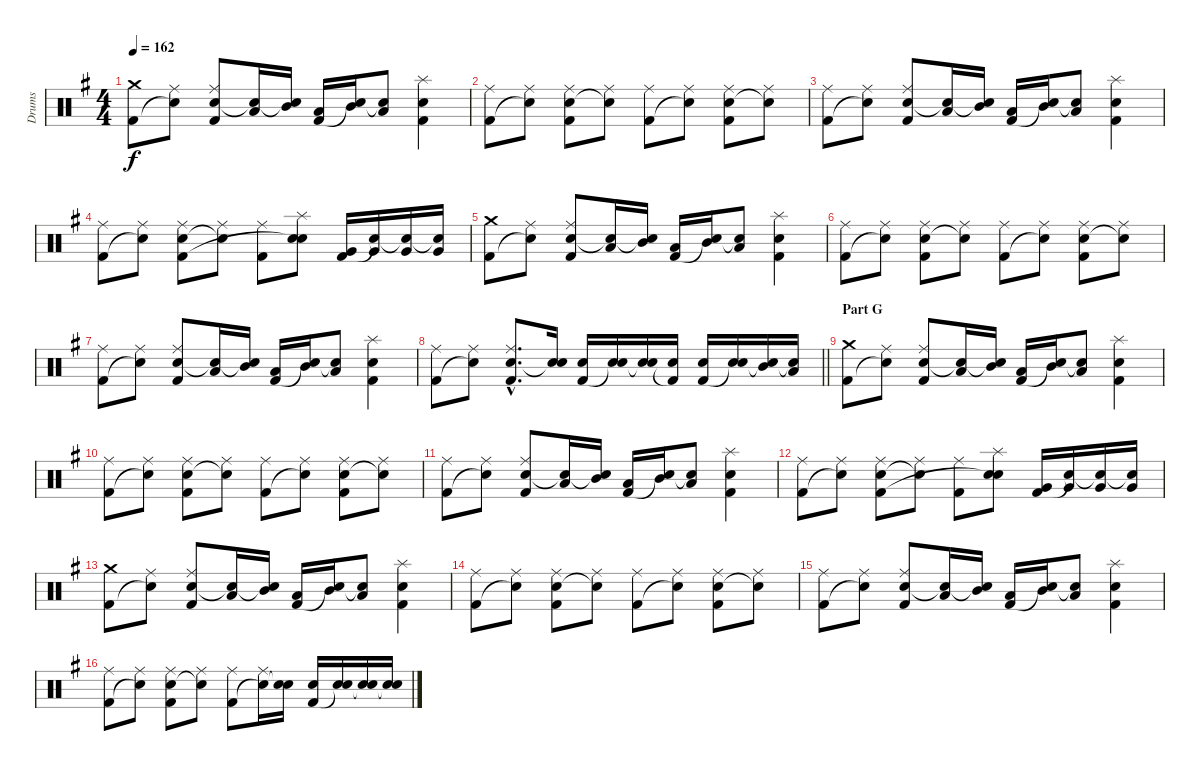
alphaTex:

\track ("Drums" "Drums") {instrument percussion}
\staff {score}
\articulation defaults
\ts (4 4)
\tempo 162
\clef neutral
\ks g
("Crash medium (hit)" "Kick (hit) 2").8{dy f} ("Ride (middle)" "Snare (hit)"{t}).8 ("Ride (middle)" "Electric Snare (hit)" "Kick (hit) 2").8 ("Low Tom (hit)" "Snare (hit)"{t}).16 ("Mid Tom (hit)" "Snare (hit)"{t}).16 ("Low Tom (hit)" "Kick (hit) 2").16 ("Mid Tom (hit)" "Snare (hit)"{t}).16 ("Low Tom (hit)" "Snare (hit)"{t}).8 ("Splash (hit)" "Electric Snare (hit)" "Kick (hit) 2").4 |
("Ride (middle)" "Kick (hit) 2").8 ("Ride (middle)" "Snare (hit)"{t}).8 ("Ride (middle)" "Electric Snare (hit)" "Kick (hit) 2").8 ("Ride (middle)" "Snare (hit)"{t}).8 ("Ride (middle)" "Kick (hit) 2").8 ("Ride (middle)" "Snare (hit)"{t}).8 ("Ride (middle)" "Electric Snare (hit)" "Kick (hit) 2").8 ("Ride (middle)" "Snare (hit)"{t}).8 |
("Ride (middle)" "Kick (hit) 2").8 ("Ride (middle)" "Snare (hit)"{t}).8 ("Ride (middle)" "Electric Snare (hit)" "Kick (hit) 2").8 ("Low Tom (hit)" "Snare (hit)"{t}).16 ("Mid Tom (hit)" "Snare (hit)"{t}).16 ("Low Tom (hit)" "Kick (hit) 2").16 ("Mid Tom (hit)" "Snare (hit)"{t}).16 ("Low Tom (hit)" "Snare (hit)"{t}).8 ("Splash (hit)" "Electric Snare (hit)" "Kick (hit) 2").4 |
("Ride (middle)" "Kick (hit) 2").8 ("Ride (middle)" "Snare (hit)"{t}).8 ("Ride (middle)" "Electric Snare (hit)" "Kick (hit) 2").8 ("Ride (middle)" "Snare (hit)"{t}).8 ("Ride (middle)" "Kick (hit) 2").8 ("Splash (hit)" "Electric Snare (hit)" "Snare (hit)"{t}).8 ("Very Low Tom (hit)" "Kick (hit) 2").16 ("Very Low Tom (hit)" "Snare (hit)"{t}).16 ("Very Low Tom (hit)" "Snare (hit)"{t}).16 ("Very Low Tom (hit)" "Snare (hit)"{t}).16 |
("Crash medium (hit)" "Kick (hit) 2").8 ("Ride (middle)" "Snare (hit)"{t}).8 ("Ride (middle)" "Electric Snare (hit)" "Kick (hit) 2").8 ("Low Tom (hit)" "Snare (hit)"{t}).16 ("Mid Tom (hit)" "Snare (hit)"{t}).16 ("Low Tom (hit)" "Kick (hit) 2").16 ("Mid Tom (hit)" "Snare (hit)"{t}).16 ("Low Tom (hit)" "Snare (hit)"{t}).8 ("Splash (hit)" "Electric Snare (hit)" "Kick (hit) 2").4 |
("Ride (middle)" "Kick (hit) 2").8 ("Ride (middle)" "Snare (hit)"{t}).8 ("Ride (middle)" "Electric Snare (hit)" "Kick (hit) 2").8 ("Ride (middle)" "Snare (hit)"{t}).8 ("Ride (middle)" "Kick (hit) 2").8 ("Ride (middle)" "Snare (hit)"{t}).8 ("Ride (middle)" "Electric Snare (hit)" "Kick (hit) 2").8 ("Ride (middle)" "Snare (hit)"{t}).8 |
("Ride (middle)" "Kick (hit) 2").8 ("Ride (middle)" "Snare (hit)"{t}).8 ("Ride (middle)" "Electric Snare (hit)" "Kick (hit) 2").8 ("Low Tom (hit)" "Snare (hit)"{t}).16 ("Mid Tom (hit)" "Snare (hit)"{t}).16 ("Low Tom (hit)" "Kick (hit) 2").16 ("Mid Tom (hit)" "Snare (hit)"{t}).16 ("Low Tom (hit)" "Snare (hit)"{t}).8 ("Splash (hit)" "Electric Snare (hit)" "Kick (hit) 2").4 |
\barLineRight lightlight
("Ride (middle)" "Kick (hit) 2").8 ("Ride (middle)" "Snare (hit)"{t}).8 ("Ride (middle)"{hac} "Electric Snare (hit)"{hac} "Kick (hit) 2"{hac}).8{d} ("Electric Snare (hit)" "Snare (hit)"{t}).16 ("Electric Snare (hit)" "Kick (hit) 2").16 ("Electric Snare (hit)" "Snare (hit)"{t}).16 ("Electric Snare (hit)" "Snare (hit)"{t}).16 ("Electric Snare (hit)" "Kick (hit) 2"{t}).16 ("Electric Snare (hit)" "Kick (hit) 2").16 ("Electric Snare (hit)" "Snare (hit)"{t}).16 ("Mid Tom (hit)" "Snare (hit)"{t}).16 ("Low Tom (hit)" "Snare (hit)"{t}).16 |
\section ("" "Part G")
("Crash medium (hit)" "Kick (hit) 2").8 ("Ride (middle)" "Snare (hit)"{t}).8 ("Ride (middle)" "Electric Snare (hit)" "Kick (hit) 2").8 ("Low Tom (hit)" "Snare (hit)"{t}).16 ("Mid Tom (hit)" "Snare (hit)"{t}).16 ("Low Tom (hit)" "Kick (hit) 2").16 ("Mid Tom (hit)" "Snare (hit)"{t}).16 ("Low Tom (hit)" "Snare (hit)"{t}).8 ("Splash (hit)" "Electric Snare (hit)" "Kick (hit) 2").4 |
("Ride (middle)" "Kick (hit) 2").8 ("Ride (middle)" "Snare (hit)"{t}).8 ("Ride (middle)" "Electric Snare (hit)" "Kick (hit) 2").8 ("Ride (middle)" "Snare (hit)"{t}).8 ("Ride (middle)" "Kick (hit) 2").8 ("Ride (middle)" "Snare (hit)"{t}).8 ("Ride (middle)" "Electric Snare (hit)" "Kick (hit) 2").8 ("Ride (middle)" "Snare (hit)"{t}).8 |
("Ride (middle)" "Kick (hit) 2").8 ("Ride (middle)" "Snare (hit)"{t}).8 ("Ride (middle)" "Electric Snare (hit)" "Kick (hit) 2").8 ("Low Tom (hit)" "Snare (hit)"{t}).16 ("Mid Tom (hit)" "Snare (hit)"{t}).16 ("Low Tom (hit)" "Kick (hit) 2").16 ("Mid Tom (hit)" "Snare (hit)"{t}).16 ("Low Tom (hit)" "Snare (hit)"{t}).8 ("Splash (hit)" "Electric Snare (hit)" "Kick (hit) 2").4 |
("Ride (middle)" "Kick (hit) 2").8 ("Ride (middle)" "Snare (hit)"{t}).8 ("Ride (middle)" "Electric Snare (hit)" "Kick (hit) 2").8 ("Ride (middle)" "Snare (hit)"{t}).8 ("Ride (middle)" "Kick (hit) 2").8 ("Splash (hit)" "Electric Snare (hit)" "Snare (hit)"{t}).8 ("Very Low Tom (hit)" "Kick (hit) 2").16 ("Very Low Tom (hit)" "Snare (hit)"{t}).16 ("Very Low Tom (hit)" "Snare (hit)"{t}).16 ("Very Low Tom (hit)" "Snare (hit)"{t}).16 |
("Crash medium (hit)" "Kick (hit) 2").8 ("Ride (middle)" "Snare (hit)"{t}).8 ("Ride (middle)" "Electric Snare (hit)" "Kick (hit) 2").8 ("Low Tom (hit)" "Snare (hit)"{t}).16 ("Mid Tom (hit)" "Snare (hit)"{t}).16 ("Low Tom (hit)" "Kick (hit) 2").16 ("Mid Tom (hit)" "Snare (hit)"{t}).16 ("Low Tom (hit)" "Snare (hit)"{t}).8 ("Splash (hit)" "Electric Snare (hit)" "Kick (hit) 2").4 |
("Ride (middle)" "Kick (hit) 2").8 ("Ride (middle)" "Snare (hit)"{t}).8 ("Ride (middle)" "Electric Snare (hit)" "Kick (hit) 2").8 ("Ride (middle)" "Snare (hit)"{t}).8 ("Ride (middle)" "Kick (hit) 2").8 ("Ride (middle)" "Snare (hit)"{t}).8 ("Ride (middle)" "Electric Snare (hit)" "Kick (hit) 2").8 ("Ride (middle)" "Snare (hit)"{t}).8 |
("Ride (middle)" "Kick (hit) 2").8 ("Ride (middle)" "Snare (hit)"{t}).8 ("Ride (middle)" "Electric Snare (hit)" "Kick (hit) 2").8 ("Low Tom (hit)" "Snare (hit)"{t}).16 ("Mid Tom (hit)" "Snare (hit)"{t}).16 ("Low Tom (hit)" "Kick (hit) 2").16 ("Mid Tom (hit)" "Snare (hit)"{t}).16 ("Low Tom (hit)" "Snare (hit)"{t}).8 ("Splash (hit)" "Electric Snare (hit)" "Kick (hit) 2").4 |
("Ride (middle)" "Kick (hit) 2").8 ("Ride (middle)" "Snare (hit)"{t}).8 ("Ride (middle)" "Electric Snare (hit)" "Kick (hit) 2").8 ("Ride (middle)" "Snare (hit)"{t}).8 ("Ride (middle)" "Kick (hit) 2").8 ("Ride (middle)" "Snare (hit)"{t}).16 ("Electric Snare (hit)" "Snare (hit)"{t}).16 ("Electric Snare (hit)" "Kick (hit) 2").16 ("Electric Snare (hit)" "Snare (hit)"{t}).16 ("Electric Snare (hit)" "Snare (hit)"{t}).16 ("Electric Snare (hit)" "Snare (hit)"{t}).16
